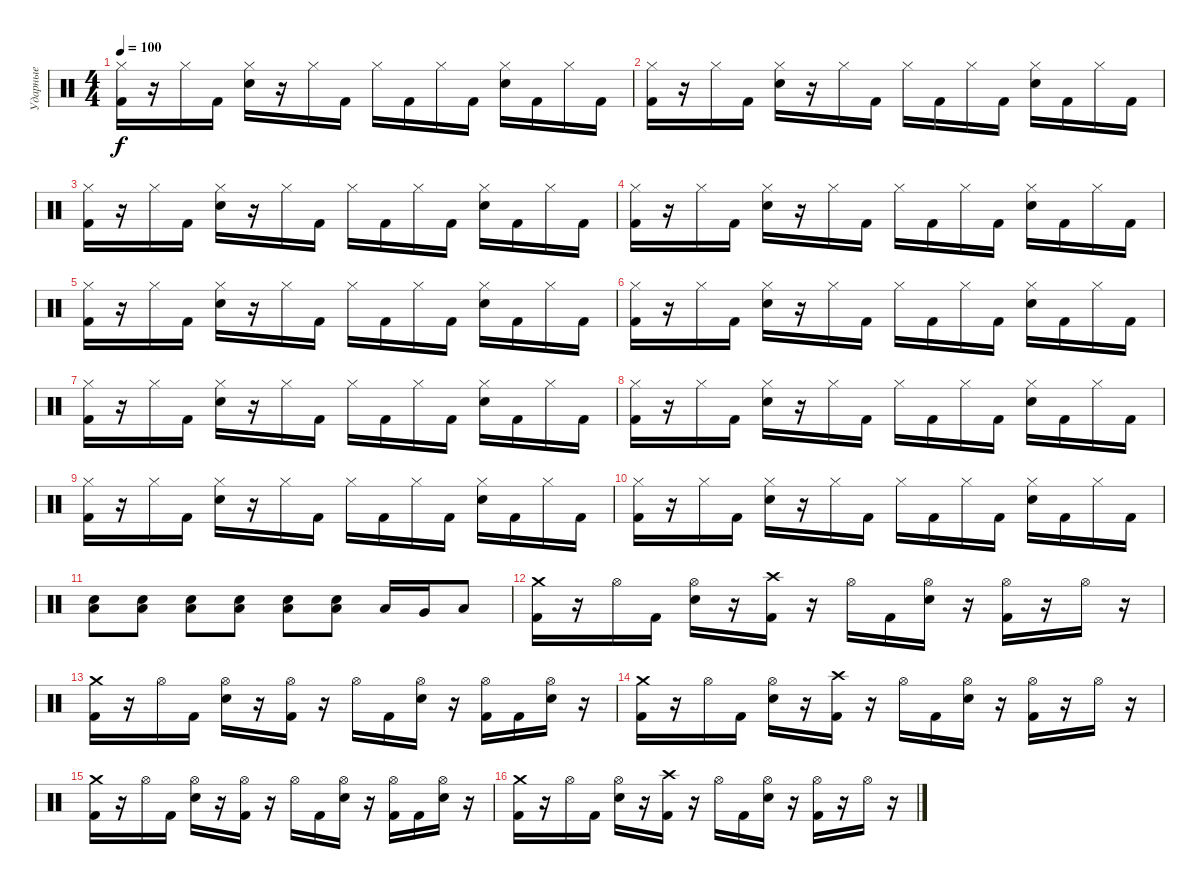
\track ("Ударные" "Ударные") {instrument percussion}
\staff {score}
\articulation defaults
\ts (4 4)
\tempo 100
\clef neutral
\ks c
("Hi-Hat (closed)" "Kick (hit) 2").16{dy f} r.16 "Hi-Hat (closed)".16 "Kick (hit) 2".16 ("Hi-Hat (closed)" "Snare (hit) 2").16 r.16 "Hi-Hat (closed)".16 "Kick (hit) 2".16 "Hi-Hat (closed)".16 "Kick (hit) 2".16 "Hi-Hat (closed)".16 "Kick (hit) 2".16 ("Hi-Hat (closed)" "Snare (hit) 2").16 "Kick (hit) 2".16 "Hi-Hat (closed)".16 "Kick (hit) 2".16 |
("Hi-Hat (closed)" "Kick (hit) 2").16 r.16 "Hi-Hat (closed)".16 "Kick (hit) 2".16 ("Hi-Hat (closed)" "Snare (hit) 2").16 r.16 "Hi-Hat (closed)".16 "Kick (hit) 2".16 "Hi-Hat (closed)".16 "Kick (hit) 2".16 "Hi-Hat (closed)".16 "Kick (hit) 2".16 ("Hi-Hat (closed)" "Snare (hit) 2").16 "Kick (hit) 2".16 "Hi-Hat (closed)".16 "Kick (hit) 2".16 |
("Hi-Hat (closed)" "Kick (hit) 2").16 r.16 "Hi-Hat (closed)".16 "Kick (hit) 2".16 ("Hi-Hat (closed)" "Snare (hit) 2").16 r.16 "Hi-Hat (closed)".16 "Kick (hit) 2".16 "Hi-Hat (closed)".16 "Kick (hit) 2".16 "Hi-Hat (closed)".16 "Kick (hit) 2".16 ("Hi-Hat (closed)" "Snare (hit) 2").16 "Kick (hit) 2".16 "Hi-Hat (closed)".16 "Kick (hit) 2".16 |
("Hi-Hat (closed)" "Kick (hit) 2").16 r.16 "Hi-Hat (closed)".16 "Kick (hit) 2".16 ("Hi-Hat (closed)" "Snare (hit) 2").16 r.16 "Hi-Hat (closed)".16 "Kick (hit) 2".16 "Hi-Hat (closed)".16 "Kick (hit) 2".16 "Hi-Hat (closed)".16 "Kick (hit) 2".16 ("Hi-Hat (closed)" "Snare (hit) 2").16 "Kick (hit) 2".16 "Hi-Hat (closed)".16 "Kick (hit) 2".16 |
("Hi-Hat (closed)" "Kick (hit) 2").16 r.16 "Hi-Hat (closed)".16 "Kick (hit) 2".16 ("Hi-Hat (closed)" "Snare (hit) 2").16 r.16 "Hi-Hat (closed)".16 "Kick (hit) 2".16 "Hi-Hat (closed)".16 "Kick (hit) 2".16 "Hi-Hat (closed)".16 "Kick (hit) 2".16 ("Hi-Hat (closed)" "Snare (hit) 2").16 "Kick (hit) 2".16 "Hi-Hat (closed)".16 "Kick (hit) 2".16 |
("Hi-Hat (closed)" "Kick (hit) 2").16 r.16 "Hi-Hat (closed)".16 "Kick (hit) 2".16 ("Hi-Hat (closed)" "Snare (hit) 2").16 r.16 "Hi-Hat (closed)".16 "Kick (hit) 2".16 "Hi-Hat (closed)".16 "Kick (hit) 2".16 "Hi-Hat (closed)".16 "Kick (hit) 2".16 ("Hi-Hat (closed)" "Snare (hit) 2").16 "Kick (hit) 2".16 "Hi-Hat (closed)".16 "Kick (hit) 2".16 |
("Hi-Hat (closed)" "Kick (hit) 2").16 r.16 "Hi-Hat (closed)".16 "Kick (hit) 2".16 ("Hi-Hat (closed)" "Snare (hit) 2").16 r.16 "Hi-Hat (closed)".16 "Kick (hit) 2".16 "Hi-Hat (closed)".16 "Kick (hit) 2".16 "Hi-Hat (closed)".16 "Kick (hit) 2".16 ("Hi-Hat (closed)" "Snare (hit) 2").16 "Kick (hit) 2".16 "Hi-Hat (closed)".16 "Kick (hit) 2".16 |
("Hi-Hat (closed)" "Kick (hit) 2").16 r.16 "Hi-Hat (closed)".16 "Kick (hit) 2".16 ("Hi-Hat (closed)" "Snare (hit) 2").16 r.16 "Hi-Hat (closed)".16 "Kick (hit) 2".16 "Hi-Hat (closed)".16 "Kick (hit) 2".16 "Hi-Hat (closed)".16 "Kick (hit) 2".16 ("Hi-Hat (closed)" "Snare (hit) 2").16 "Kick (hit) 2".16 "Hi-Hat (closed)".16 "Kick (hit) 2".16 |
("Hi-Hat (closed)" "Kick (hit) 2").16 r.16 "Hi-Hat (closed)".16 "Kick (hit) 2".16 ("Hi-Hat (closed)" "Snare (hit) 2").16 r.16 "Hi-Hat (closed)".16 "Kick (hit) 2".16 "Hi-Hat (closed)".16 "Kick (hit) 2".16 "Hi-Hat (closed)".16 "Kick (hit) 2".16 ("Hi-Hat (closed)" "Snare (hit) 2").16 "Kick (hit) 2".16 "Hi-Hat (closed)".16 "Kick (hit) 2".16 |
("Hi-Hat (closed)" "Kick (hit) 2").16 r.16 "Hi-Hat (closed)".16 "Kick (hit) 2".16 ("Hi-Hat (closed)" "Snare (hit) 2").16 r.16 "Hi-Hat (closed)".16 "Kick (hit) 2".16 "Hi-Hat (closed)".16 "Kick (hit) 2".16 "Hi-Hat (closed)".16 "Kick (hit) 2".16 ("Hi-Hat (closed)" "Snare (hit) 2").16 "Kick (hit) 2".16 "Hi-Hat (closed)".16 "Kick (hit) 2".16 |
("Low Floor Tom (hit)" "Snare (hit) 2").8 ("Low Floor Tom (hit)" "Snare (hit) 2").8 ("Low Floor Tom (hit)" "Snare (hit) 2").8 ("Low Floor Tom (hit)" "Snare (hit) 2").8 ("Low Floor Tom (hit)" "Snare (hit) 2").8 ("Low Floor Tom (hit)" "Snare (hit) 2").8 "Low Tom (hit)".16 "Very Low Tom (hit)".16 "Low Floor Tom (hit)".8 |
("Crash medium (hit)" "Kick (hit) 2").16 r.16 "Hi-Hat (open)".16 "Kick (hit) 2".16 ("Hi-Hat (open)" "Snare (hit) 2").16 r.16 ("Crash high (hit)" "Kick (hit) 2").16 r.16 "Hi-Hat (open)".16 "Kick (hit) 2".16 ("Hi-Hat (open)" "Snare (hit) 2").16 r.16 ("Hi-Hat (open)" "Kick (hit) 2").16 r.16 "Hi-Hat (open)".16 r.16 |
("Crash medium (hit)" "Kick (hit) 2").16 r.16 "Hi-Hat (open)".16 "Kick (hit) 2".16 ("Hi-Hat (open)" "Snare (hit) 2").16 r.16 ("Hi-Hat (open)" "Kick (hit) 2").16 r.16 "Hi-Hat (open)".16 "Kick (hit) 2".16 ("Hi-Hat (open)" "Snare (hit) 2").16 r.16 ("Hi-Hat (open)" "Kick (hit) 2").16 "Kick (hit) 2".16 ("Hi-Hat (open)" "Snare (hit) 2").16 r.16 |
("Crash medium (hit)" "Kick (hit) 2").16 r.16 "Hi-Hat (open)".16 "Kick (hit) 2".16 ("Hi-Hat (open)" "Snare (hit) 2").16 r.16 ("Crash high (hit)" "Kick (hit) 2").16 r.16 "Hi-Hat (open)".16 "Kick (hit) 2".16 ("Hi-Hat (open)" "Snare (hit) 2").16 r.16 ("Hi-Hat (open)" "Kick (hit) 2").16 r.16 "Hi-Hat (open)".16 r.16 |
("Crash medium (hit)" "Kick (hit) 2").16 r.16 "Hi-Hat (open)".16 "Kick (hit) 2".16 ("Hi-Hat (open)" "Snare (hit) 2").16 r.16 ("Hi-Hat (open)" "Kick (hit) 2").16 r.16 "Hi-Hat (open)".16 "Kick (hit) 2".16 ("Hi-Hat (open)" "Snare (hit) 2").16 r.16 ("Hi-Hat (open)" "Kick (hit) 2").16 "Kick (hit) 2".16 ("Hi-Hat (open)" "Snare (hit) 2").16 r.16 |
("Crash medium (hit)" "Kick (hit) 2").16 r.16 "Hi-Hat (open)".16 "Kick (hit) 2".16 ("Hi-Hat (open)" "Snare (hit) 2").16 r.16 ("Crash high (hit)" "Kick (hit) 2").16 r.16 "Hi-Hat (open)".16 "Kick (hit) 2".16 ("Hi-Hat (open)" "Snare (hit) 2").16 r.16 ("Hi-Hat (open)" "Kick (hit) 2").16 r.16 "Hi-Hat (open)".16 r.16
